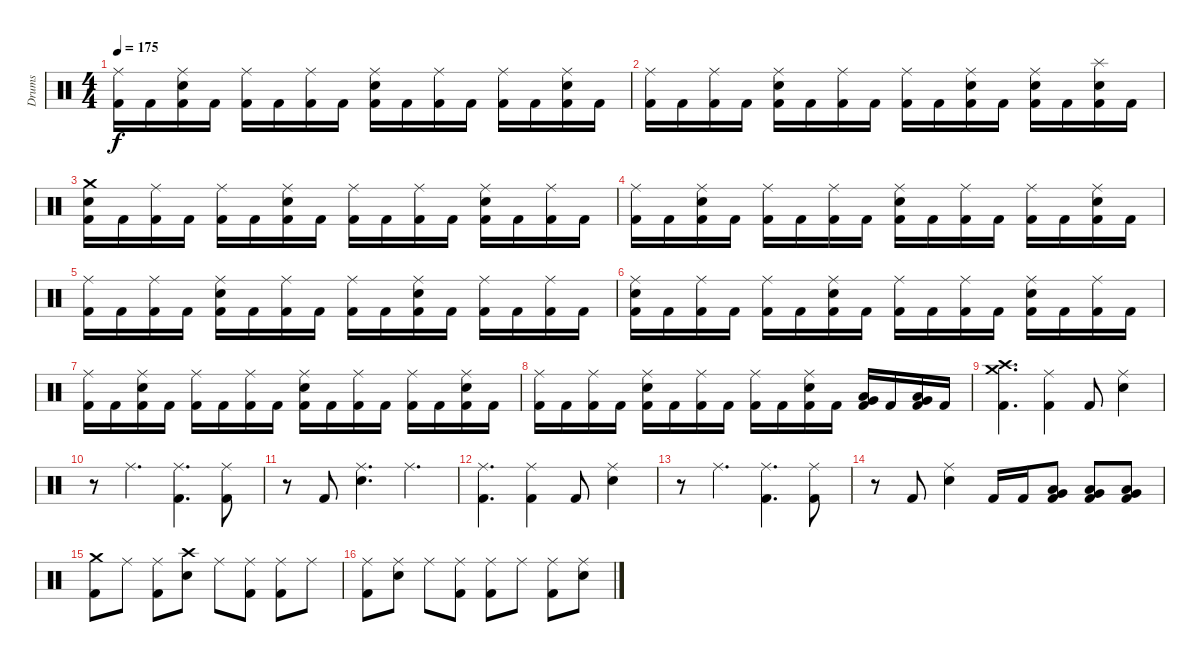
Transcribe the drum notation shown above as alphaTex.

\track ("Drums" "Drums") {instrument percussion}
\staff {score}
\articulation defaults
\ts (4 4)
\tempo 175
\clef neutral
\ks c
("Ride (middle)" "Kick (hit) 2").16{dy f} "Kick (hit) 2".16 ("Ride (middle)" "Electric Snare (hit)" "Kick (hit) 2").16 "Kick (hit) 2".16 ("Ride (middle)" "Kick (hit) 2").16 "Kick (hit) 2".16 ("Ride (middle)" "Kick (hit) 2").16 "Kick (hit) 2".16 ("Ride (middle)" "Electric Snare (hit)" "Kick (hit) 2").16 "Kick (hit) 2".16 ("Ride (middle)" "Kick (hit) 2").16 "Kick (hit) 2".16 ("Ride (middle)" "Kick (hit) 2").16 "Kick (hit) 2".16 ("Ride (middle)" "Electric Snare (hit)" "Kick (hit) 2").16 "Kick (hit) 2".16 |
("Ride (middle)" "Kick (hit) 2").16 "Kick (hit) 2".16 ("Ride (middle)" "Kick (hit) 2").16 "Kick (hit) 2".16 ("Ride (middle)" "Electric Snare (hit)" "Kick (hit) 2").16 "Kick (hit) 2".16 ("Ride (middle)" "Kick (hit) 2").16 "Kick (hit) 2".16 ("Ride (middle)" "Kick (hit) 2").16 "Kick (hit) 2".16 ("Ride (middle)" "Electric Snare (hit)" "Kick (hit) 2").16 "Kick (hit) 2".16 ("Ride (middle)" "Electric Snare (hit)" "Kick (hit) 2").16 "Kick (hit) 2".16 ("Splash (hit)" "Electric Snare (hit)" "Kick (hit) 2").16 "Kick (hit) 2".16 |
("Crash medium (hit)" "Electric Snare (hit)" "Kick (hit) 2").16 "Kick (hit) 2".16 ("Ride (middle)" "Kick (hit) 2").16 "Kick (hit) 2".16 ("Ride (middle)" "Kick (hit) 2").16 "Kick (hit) 2".16 ("Ride (middle)" "Electric Snare (hit)" "Kick (hit) 2").16 "Kick (hit) 2".16 ("Ride (middle)" "Kick (hit) 2").16 "Kick (hit) 2".16 ("Ride (middle)" "Kick (hit) 2").16 "Kick (hit) 2".16 ("Ride (middle)" "Electric Snare (hit)" "Kick (hit) 2").16 "Kick (hit) 2".16 ("Ride (middle)" "Kick (hit) 2").16 "Kick (hit) 2".16 |
("Ride (middle)" "Kick (hit) 2").16 "Kick (hit) 2".16 ("Ride (middle)" "Electric Snare (hit)" "Kick (hit) 2").16 "Kick (hit) 2".16 ("Ride (middle)" "Kick (hit) 2").16 "Kick (hit) 2".16 ("Ride (middle)" "Kick (hit) 2").16 "Kick (hit) 2".16 ("Ride (middle)" "Electric Snare (hit)" "Kick (hit) 2").16 "Kick (hit) 2".16 ("Ride (middle)" "Kick (hit) 2").16 "Kick (hit) 2".16 ("Ride (middle)" "Kick (hit) 2").16 "Kick (hit) 2".16 ("Ride (middle)" "Electric Snare (hit)" "Kick (hit) 2").16 "Kick (hit) 2".16 |
("Ride (middle)" "Kick (hit) 2").16 "Kick (hit) 2".16 ("Ride (middle)" "Kick (hit) 2").16 "Kick (hit) 2".16 ("Ride (middle)" "Electric Snare (hit)" "Kick (hit) 2").16 "Kick (hit) 2".16 ("Ride (middle)" "Kick (hit) 2").16 "Kick (hit) 2".16 ("Ride (middle)" "Kick (hit) 2").16 "Kick (hit) 2".16 ("Ride (middle)" "Electric Snare (hit)" "Kick (hit) 2").16 "Kick (hit) 2".16 ("Ride (middle)" "Kick (hit) 2").16 "Kick (hit) 2".16 ("Ride (middle)" "Kick (hit) 2").16 "Kick (hit) 2".16 |
("Ride (middle)" "Electric Snare (hit)" "Kick (hit) 2").16 "Kick (hit) 2".16 ("Ride (middle)" "Kick (hit) 2").16 "Kick (hit) 2".16 ("Ride (middle)" "Kick (hit) 2").16 "Kick (hit) 2".16 ("Ride (middle)" "Electric Snare (hit)" "Kick (hit) 2").16 "Kick (hit) 2".16 ("Ride (middle)" "Kick (hit) 2").16 "Kick (hit) 2".16 ("Ride (middle)" "Kick (hit) 2").16 "Kick (hit) 2".16 ("Ride (middle)" "Electric Snare (hit)" "Kick (hit) 2").16 "Kick (hit) 2".16 ("Ride (middle)" "Kick (hit) 2").16 "Kick (hit) 2".16 |
("Ride (middle)" "Kick (hit) 2").16 "Kick (hit) 2".16 ("Ride (middle)" "Electric Snare (hit)" "Kick (hit) 2").16 "Kick (hit) 2".16 ("Ride (middle)" "Kick (hit) 2").16 "Kick (hit) 2".16 ("Ride (middle)" "Kick (hit) 2").16 "Kick (hit) 2".16 ("Ride (middle)" "Electric Snare (hit)" "Kick (hit) 2").16 "Kick (hit) 2".16 ("Ride (middle)" "Kick (hit) 2").16 "Kick (hit) 2".16 ("Ride (middle)" "Kick (hit) 2").16 "Kick (hit) 2".16 ("Ride (middle)" "Electric Snare (hit)" "Kick (hit) 2").16 "Kick (hit) 2".16 |
("Ride (middle)" "Kick (hit) 2").16 "Kick (hit) 2".16 ("Ride (middle)" "Kick (hit) 2").16 "Kick (hit) 2".16 ("Ride (middle)" "Electric Snare (hit)" "Kick (hit) 2").16 "Kick (hit) 2".16 ("Ride (middle)" "Kick (hit) 2").16 "Kick (hit) 2".16 ("Ride (middle)" "Kick (hit) 2").16 "Kick (hit) 2".16 ("Ride (middle)" "Electric Snare (hit)" "Kick (hit) 2").16 "Kick (hit) 2".16 ("Very Low Tom (hit)" "Low Tom (hit)" "Kick (hit) 2").16 "Kick (hit) 2".16 ("Very Low Tom (hit)" "Low Tom (hit)" "Kick (hit) 2").16 "Kick (hit) 2".16 |
("Crash medium (hit)" "Crash high (hit)" "Kick (hit) 2").4{d} ("Ride (middle)" "Kick (hit) 2").4 "Kick (hit) 2".8 ("Ride (middle)" "Electric Snare (hit)").4 |
r.8 "Ride (middle)".4{d} ("Ride (middle)" "Kick (hit) 2").4{d} ("Ride (middle)" "Kick (hit) 2").8 |
r.8 "Kick (hit) 2".8 ("Ride (middle)" "Electric Snare (hit)").4{d} "Ride (middle)".4{d} |
("Ride (middle)" "Kick (hit) 2").4{d} ("Ride (middle)" "Kick (hit) 2").4 "Kick (hit) 2".8 ("Ride (middle)" "Electric Snare (hit)").4 |
r.8 "Ride (middle)".4{d} ("Ride (middle)" "Kick (hit) 2").4{d} ("Ride (middle)" "Kick (hit) 2").8 |
r.8 "Kick (hit) 2".8 ("Ride (middle)" "Electric Snare (hit)").4 "Kick (hit) 2".16 "Kick (hit) 2".16 ("Low Floor Tom (hit)" "Very Low Tom (hit)" "Kick (hit) 2").8 ("Low Floor Tom (hit)" "Very Low Tom (hit)" "Kick (hit) 2").8 ("Low Floor Tom (hit)" "Very Low Tom (hit)" "Kick (hit) 2").8 |
("Crash medium (hit)" "Kick (hit) 2").8 "Ride (middle)".8 ("Ride (middle)" "Kick (hit) 2").8 ("Crash high (hit)" "Electric Snare (hit)").8 "Ride (middle)".8 ("Ride (middle)" "Kick (hit) 2").8 ("Ride (middle)" "Kick (hit) 2").8 "Ride (middle)".8 |
("Ride (middle)" "Kick (hit) 2").8 ("Ride (middle)" "Electric Snare (hit)").8 "Ride (middle)".8 ("Ride (middle)" "Kick (hit) 2").8 ("Ride (middle)" "Kick (hit) 2").8 "Ride (middle)".8 ("Ride (middle)" "Kick (hit) 2").8 ("Ride (middle)" "Electric Snare (hit)").8
